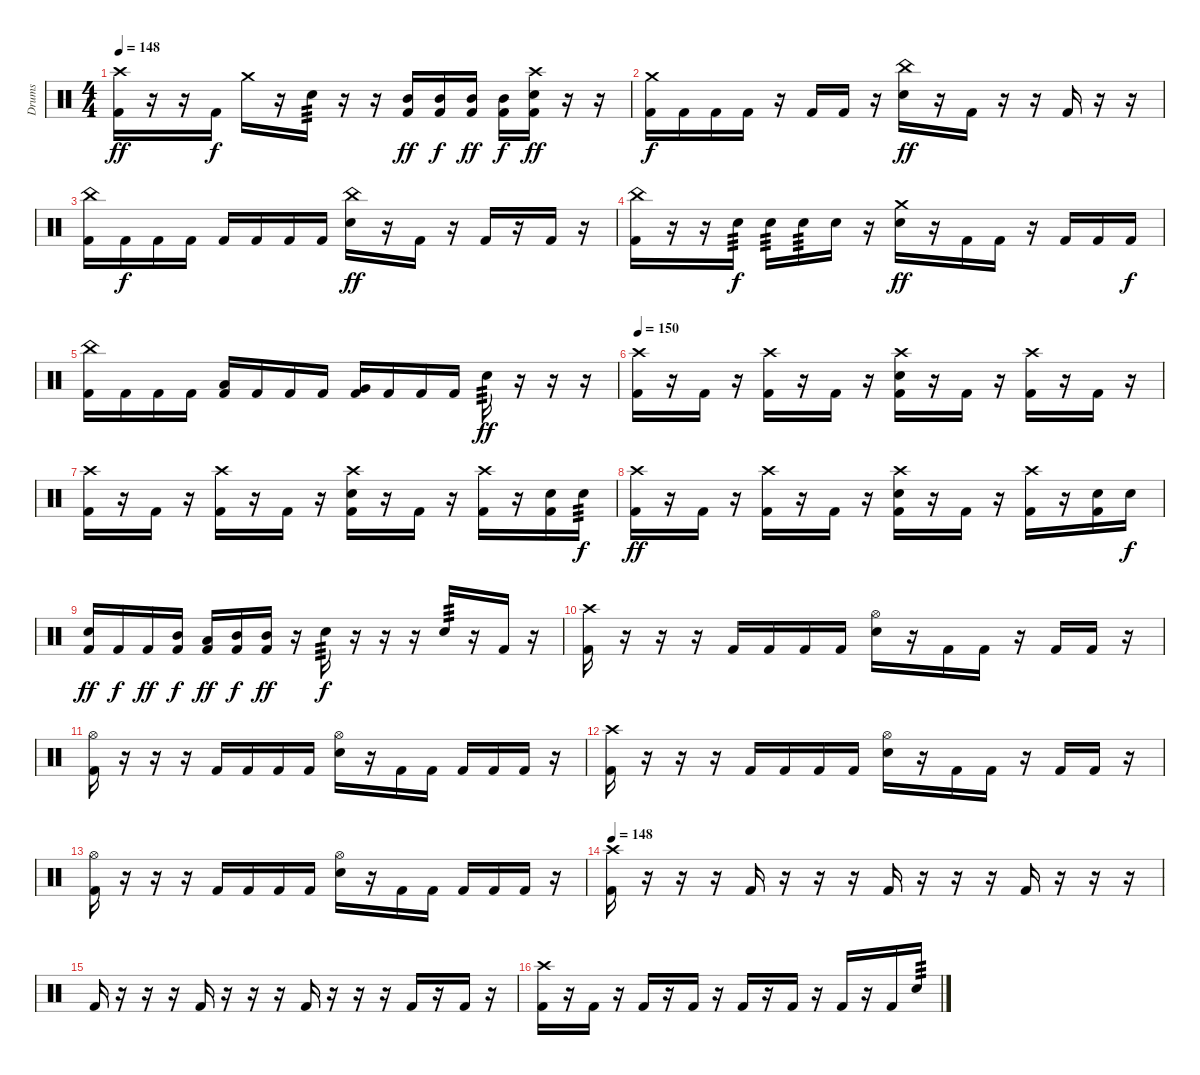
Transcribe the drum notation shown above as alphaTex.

\track ("Drums" "Drums") {instrument percussion}
\staff {score}
\articulation defaults
\ts (4 4)
\tempo 148
\clef neutral
\ks c
("Crash high (hit)" "Kick (hit) 2").16{dy ff} r.16 r.16 "Kick (hit) 2".16{dy f} "Crash medium (hit)".16 r.16 "Electric Snare (hit)".16{tp 3} r.16 r.16 ("Mid Tom (hit)" "Kick (hit) 2").16{dy ff} ("Mid Tom (hit)" "Kick (hit) 2").16{dy f} ("Mid Tom (hit)" "Kick (hit) 2").16{dy ff} ("Mid Tom (hit)" "Kick (hit) 2").16{dy f} ("Crash high (hit)" "Electric Snare (hit)" "Kick (hit) 2").16{dy ff} r.16 r.16 |
("Crash medium (hit)" "Kick (hit) 2").16{dy f} "Kick (hit) 2".16 "Kick (hit) 2".16 "Kick (hit) 2".16 r.16 "Kick (hit) 2".16 "Kick (hit) 2".16 r.16 ("China (hit)" "Electric Snare (hit)").16{dy ff} r.16 "Kick (hit) 2".16 r.16 r.16 "Kick (hit) 2".16 r.16 r.16 |
("China (hit)" "Kick (hit) 2").16 "Kick (hit) 2".16{dy f} "Kick (hit) 2".16 "Kick (hit) 2".16 "Kick (hit) 2".16 "Kick (hit) 2".16 "Kick (hit) 2".16 "Kick (hit) 2".16 ("China (hit)" "Electric Snare (hit)").16{dy ff} r.16 "Kick (hit) 2".16 r.16 "Kick (hit) 2".16 r.16 "Kick (hit) 2".16 r.16 |
("China (hit)" "Kick (hit) 2").16 r.16 r.16 "Electric Snare (hit)".16{tp 3 dy f} "Electric Snare (hit)".16{tp 3} "Electric Snare (hit)".16{tp 3} "Electric Snare (hit)".16 r.16 ("Crash medium (hit)" "Electric Snare (hit)").16{dy ff} r.16 "Kick (hit) 2".16 "Kick (hit) 2".16 r.16 "Kick (hit) 2".16 "Kick (hit) 2".16 "Kick (hit) 2".16{dy f} |
("China (hit)" "Kick (hit) 2").16 "Kick (hit) 2".16 "Kick (hit) 2".16 "Kick (hit) 2".16 ("Low Floor Tom (hit)" "Kick (hit) 2").16 "Kick (hit) 2".16 "Kick (hit) 2".16 "Kick (hit) 2".16 ("Very Low Tom (hit)" "Kick (hit) 2").16 "Kick (hit) 2".16 "Kick (hit) 2".16 "Kick (hit) 2".16 "Electric Snare (hit)".16{tp 3 dy ff} r.16 r.16 r.16 |
\tempo 150
("Crash high (hit)" "Kick (hit) 2").16 r.16 "Kick (hit) 2".16 r.16 ("Crash high (hit)" "Kick (hit) 2").16 r.16 "Kick (hit) 2".16 r.16 ("Crash high (hit)" "Electric Snare (hit)" "Kick (hit) 2").16 r.16 "Kick (hit) 2".16 r.16 ("Crash high (hit)" "Kick (hit) 2").16 r.16 "Kick (hit) 2".16 r.16 |
("Crash high (hit)" "Kick (hit) 2").16 r.16 "Kick (hit) 2".16 r.16 ("Crash high (hit)" "Kick (hit) 2").16 r.16 "Kick (hit) 2".16 r.16 ("Crash high (hit)" "Electric Snare (hit)" "Kick (hit) 2").16 r.16 "Kick (hit) 2".16 r.16 ("Crash high (hit)" "Kick (hit) 2").16 r.16 ("Electric Snare (hit)" "Kick (hit) 2").16 "Electric Snare (hit)".16{tp 3 dy f} |
("Crash high (hit)" "Kick (hit) 2").16{dy ff} r.16 "Kick (hit) 2".16 r.16 ("Crash high (hit)" "Kick (hit) 2").16 r.16 "Kick (hit) 2".16 r.16 ("Crash high (hit)" "Electric Snare (hit)" "Kick (hit) 2").16 r.16 "Kick (hit) 2".16 r.16 ("Crash high (hit)" "Kick (hit) 2").16 r.16 ("Electric Snare (hit)" "Kick (hit) 2").16 "Electric Snare (hit)".16{dy f} |
("Electric Snare (hit)" "Kick (hit) 2").16{dy ff} "Kick (hit) 2".16{dy f} "Kick (hit) 2".16{dy ff} ("Mid Tom (hit)" "Kick (hit) 2").16{dy f} ("Low Tom (hit)" "Kick (hit) 2").16{dy ff} ("Mid Tom (hit)" "Kick (hit) 2").16{dy f} ("Mid Tom (hit)" "Kick (hit) 2").16{dy ff} r.16 "Electric Snare (hit)".16{tp 3 dy f} r.16 r.16 r.16 "Electric Snare (hit)".16{tp 3} r.16 "Kick (hit) 2".16 r.16 |
("Crash high (hit)" "Kick (hit) 2").16 r.16 r.16 r.16 "Kick (hit) 2".16 "Kick (hit) 2".16 "Kick (hit) 2".16 "Kick (hit) 2".16 ("Hi-Hat (open)" "Electric Snare (hit)").16 r.16 "Kick (hit) 2".16 "Kick (hit) 2".16 r.16 "Kick (hit) 2".16 "Kick (hit) 2".16 r.16 |
("Hi-Hat (open)" "Kick (hit) 2").16 r.16 r.16 r.16 "Kick (hit) 2".16 "Kick (hit) 2".16 "Kick (hit) 2".16 "Kick (hit) 2".16 ("Hi-Hat (open)" "Electric Snare (hit)").16 r.16 "Kick (hit) 2".16 "Kick (hit) 2".16 "Kick (hit) 2".16 "Kick (hit) 2".16 "Kick (hit) 2".16 r.16 |
("Crash high (hit)" "Kick (hit) 2").16 r.16 r.16 r.16 "Kick (hit) 2".16 "Kick (hit) 2".16 "Kick (hit) 2".16 "Kick (hit) 2".16 ("Hi-Hat (open)" "Electric Snare (hit)").16 r.16 "Kick (hit) 2".16 "Kick (hit) 2".16 r.16 "Kick (hit) 2".16 "Kick (hit) 2".16 r.16 |
("Hi-Hat (open)" "Kick (hit) 2").16 r.16 r.16 r.16 "Kick (hit) 2".16 "Kick (hit) 2".16 "Kick (hit) 2".16 "Kick (hit) 2".16 ("Hi-Hat (open)" "Electric Snare (hit)").16 r.16 "Kick (hit) 2".16 "Kick (hit) 2".16 "Kick (hit) 2".16 "Kick (hit) 2".16 "Kick (hit) 2".16 r.16 |
\tempo 148
("Crash high (hit)" "Kick (hit) 2").16 r.16 r.16 r.16 "Kick (hit) 2".16 r.16 r.16 r.16 "Kick (hit) 2".16 r.16 r.16 r.16 "Kick (hit) 2".16 r.16 r.16 r.16 |
"Kick (hit) 2".16 r.16 r.16 r.16 "Kick (hit) 2".16 r.16 r.16 r.16 "Kick (hit) 2".16 r.16 r.16 r.16 "Kick (hit) 2".16 r.16 "Kick (hit) 2".16 r.16 |
("Crash high (hit)" "Kick (hit) 2").16 r.16 "Kick (hit) 2".16 r.16 "Kick (hit) 2".16 r.16 "Kick (hit) 2".16 r.16 "Kick (hit) 2".16 r.16 "Kick (hit) 2".16 r.16 "Kick (hit) 2".16 r.16 "Kick (hit) 2".16 "Electric Snare (hit)".16{tp 3}
